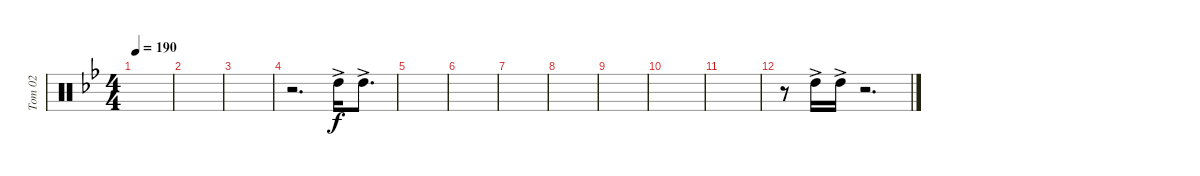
\track ("Tom 02" "Tom 02") {instrument percussion}
\staff {score}
\articulation defaults
\ts (4 4)
\tempo 190
\clef neutral
\ks bb
|
|
|
r.2{d} "High Tom (hit)"{ac}.16 "High Tom (hit)"{ac}.8{d} |
|
|
|
|
|
|
|
r.8 "High Tom (hit)"{ac}.16 "High Tom (hit)"{ac}.16 r.2{d}
